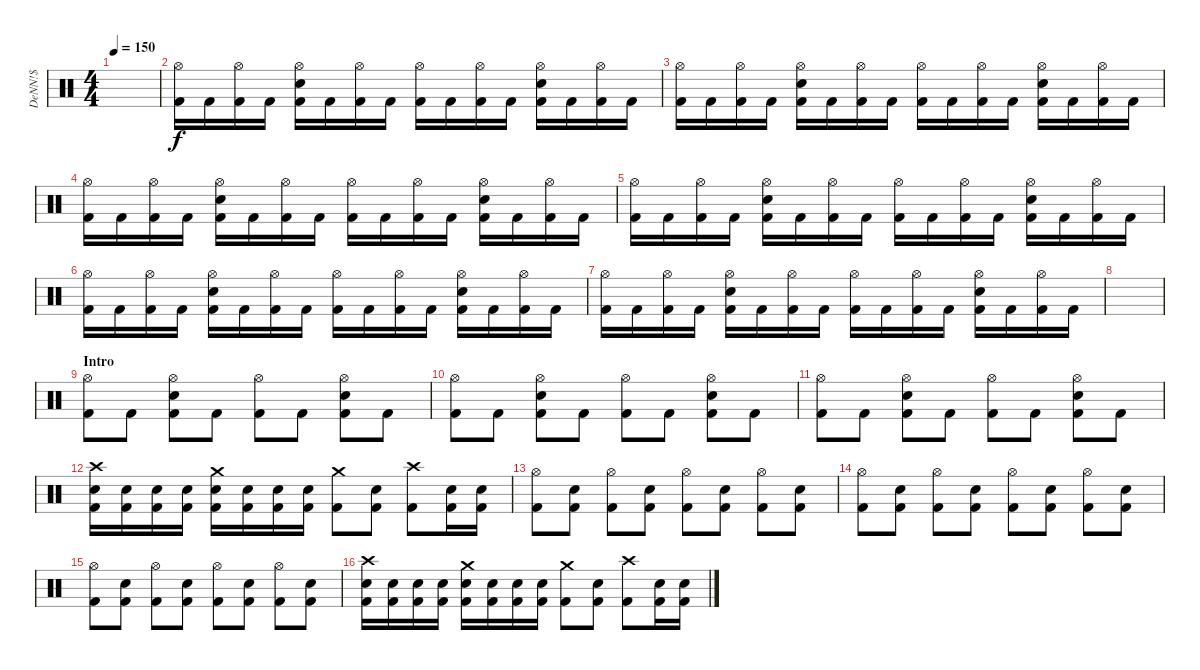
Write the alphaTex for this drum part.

\track ("DeNN!$" "DeNN!$") {instrument percussion}
\staff {score}
\articulation defaults
\ts (4 4)
\tempo 150
\clef neutral
\ks c
|
("Hi-Hat (open)" "Kick (hit) 2").16 "Kick (hit) 2".16 ("Hi-Hat (open)" "Kick (hit) 2").16 "Kick (hit) 2".16 ("Hi-Hat (open)" "Snare (hit) 2" "Kick (hit) 2").16 "Kick (hit) 2".16 ("Hi-Hat (open)" "Kick (hit) 2").16 "Kick (hit) 2".16 ("Hi-Hat (open)" "Kick (hit) 2").16 "Kick (hit) 2".16 ("Hi-Hat (open)" "Kick (hit) 2").16 "Kick (hit) 2".16 ("Hi-Hat (open)" "Snare (hit) 2" "Kick (hit) 2").16 "Kick (hit) 2".16 ("Hi-Hat (open)" "Kick (hit) 2").16 "Kick (hit) 2".16 |
("Hi-Hat (open)" "Kick (hit) 2").16 "Kick (hit) 2".16 ("Hi-Hat (open)" "Kick (hit) 2").16 "Kick (hit) 2".16 ("Hi-Hat (open)" "Snare (hit) 2" "Kick (hit) 2").16 "Kick (hit) 2".16 ("Hi-Hat (open)" "Kick (hit) 2").16 "Kick (hit) 2".16 ("Hi-Hat (open)" "Kick (hit) 2").16 "Kick (hit) 2".16 ("Hi-Hat (open)" "Kick (hit) 2").16 "Kick (hit) 2".16 ("Hi-Hat (open)" "Snare (hit) 2" "Kick (hit) 2").16 "Kick (hit) 2".16 ("Hi-Hat (open)" "Kick (hit) 2").16 "Kick (hit) 2".16 |
("Hi-Hat (open)" "Kick (hit) 2").16 "Kick (hit) 2".16 ("Hi-Hat (open)" "Kick (hit) 2").16 "Kick (hit) 2".16 ("Hi-Hat (open)" "Snare (hit) 2" "Kick (hit) 2").16 "Kick (hit) 2".16 ("Hi-Hat (open)" "Kick (hit) 2").16 "Kick (hit) 2".16 ("Hi-Hat (open)" "Kick (hit) 2").16 "Kick (hit) 2".16 ("Hi-Hat (open)" "Kick (hit) 2").16 "Kick (hit) 2".16 ("Hi-Hat (open)" "Snare (hit) 2" "Kick (hit) 2").16 "Kick (hit) 2".16 ("Hi-Hat (open)" "Kick (hit) 2").16 "Kick (hit) 2".16 |
("Hi-Hat (open)" "Kick (hit) 2").16 "Kick (hit) 2".16 ("Hi-Hat (open)" "Kick (hit) 2").16 "Kick (hit) 2".16 ("Hi-Hat (open)" "Snare (hit) 2" "Kick (hit) 2").16 "Kick (hit) 2".16 ("Hi-Hat (open)" "Kick (hit) 2").16 "Kick (hit) 2".16 ("Hi-Hat (open)" "Kick (hit) 2").16 "Kick (hit) 2".16 ("Hi-Hat (open)" "Kick (hit) 2").16 "Kick (hit) 2".16 ("Hi-Hat (open)" "Snare (hit) 2" "Kick (hit) 2").16 "Kick (hit) 2".16 ("Hi-Hat (open)" "Kick (hit) 2").16 "Kick (hit) 2".16 |
("Hi-Hat (open)" "Kick (hit) 2").16 "Kick (hit) 2".16 ("Hi-Hat (open)" "Kick (hit) 2").16 "Kick (hit) 2".16 ("Hi-Hat (open)" "Snare (hit) 2" "Kick (hit) 2").16 "Kick (hit) 2".16 ("Hi-Hat (open)" "Kick (hit) 2").16 "Kick (hit) 2".16 ("Hi-Hat (open)" "Kick (hit) 2").16 "Kick (hit) 2".16 ("Hi-Hat (open)" "Kick (hit) 2").16 "Kick (hit) 2".16 ("Hi-Hat (open)" "Snare (hit) 2" "Kick (hit) 2").16 "Kick (hit) 2".16 ("Hi-Hat (open)" "Kick (hit) 2").16 "Kick (hit) 2".16 |
("Hi-Hat (open)" "Kick (hit) 2").16 "Kick (hit) 2".16 ("Hi-Hat (open)" "Kick (hit) 2").16 "Kick (hit) 2".16 ("Hi-Hat (open)" "Snare (hit) 2" "Kick (hit) 2").16 "Kick (hit) 2".16 ("Hi-Hat (open)" "Kick (hit) 2").16 "Kick (hit) 2".16 ("Hi-Hat (open)" "Kick (hit) 2").16 "Kick (hit) 2".16 ("Hi-Hat (open)" "Kick (hit) 2").16 "Kick (hit) 2".16 ("Hi-Hat (open)" "Snare (hit) 2" "Kick (hit) 2").16 "Kick (hit) 2".16 ("Hi-Hat (open)" "Kick (hit) 2").16 "Kick (hit) 2".16 |
|
\section ("" "Intro")
("Hi-Hat (open)" "Kick (hit) 2").8 "Kick (hit) 2".8 ("Hi-Hat (open)" "Snare (hit) 2" "Kick (hit) 2").8 "Kick (hit) 2".8 ("Hi-Hat (open)" "Kick (hit) 2").8 "Kick (hit) 2".8 ("Hi-Hat (open)" "Snare (hit) 2" "Kick (hit) 2").8 "Kick (hit) 2".8 |
("Hi-Hat (open)" "Kick (hit) 2").8 "Kick (hit) 2".8 ("Hi-Hat (open)" "Snare (hit) 2" "Kick (hit) 2").8 "Kick (hit) 2".8 ("Hi-Hat (open)" "Kick (hit) 2").8 "Kick (hit) 2".8 ("Hi-Hat (open)" "Snare (hit) 2" "Kick (hit) 2").8 "Kick (hit) 2".8 |
("Hi-Hat (open)" "Kick (hit) 2").8 "Kick (hit) 2".8 ("Hi-Hat (open)" "Snare (hit) 2" "Kick (hit) 2").8 "Kick (hit) 2".8 ("Hi-Hat (open)" "Kick (hit) 2").8 "Kick (hit) 2".8 ("Hi-Hat (open)" "Snare (hit) 2" "Kick (hit) 2").8 "Kick (hit) 2".8 |
("Crash high (hit)" "Snare (hit) 2" "Kick (hit) 2").16 ("Snare (hit) 2" "Kick (hit) 2").16 ("Snare (hit) 2" "Kick (hit) 2").16 ("Snare (hit) 2" "Kick (hit) 2").16 ("Crash medium (hit)" "Snare (hit) 2" "Kick (hit) 2").16 ("Snare (hit) 2" "Kick (hit) 2").16 ("Snare (hit) 2" "Kick (hit) 2").16 ("Snare (hit) 2" "Kick (hit) 2").16 ("Crash medium (hit)" "Kick (hit) 2").8 ("Snare (hit) 2" "Kick (hit) 2").8 ("Crash high (hit)" "Kick (hit) 2").8 ("Snare (hit) 2" "Kick (hit) 2").16 ("Snare (hit) 2" "Kick (hit) 2").16 |
("Hi-Hat (open)" "Kick (hit) 2").8 ("Snare (hit) 2" "Kick (hit) 2").8 ("Hi-Hat (open)" "Kick (hit) 2").8 ("Snare (hit) 2" "Kick (hit) 2").8 ("Hi-Hat (open)" "Kick (hit) 2").8 ("Snare (hit) 2" "Kick (hit) 2").8 ("Hi-Hat (open)" "Kick (hit) 2").8 ("Snare (hit) 2" "Kick (hit) 2").8 |
("Hi-Hat (open)" "Kick (hit) 2").8 ("Snare (hit) 2" "Kick (hit) 2").8 ("Hi-Hat (open)" "Kick (hit) 2").8 ("Snare (hit) 2" "Kick (hit) 2").8 ("Hi-Hat (open)" "Kick (hit) 2").8 ("Snare (hit) 2" "Kick (hit) 2").8 ("Hi-Hat (open)" "Kick (hit) 2").8 ("Snare (hit) 2" "Kick (hit) 2").8 |
("Hi-Hat (open)" "Kick (hit) 2").8 ("Snare (hit) 2" "Kick (hit) 2").8 ("Hi-Hat (open)" "Kick (hit) 2").8 ("Snare (hit) 2" "Kick (hit) 2").8 ("Hi-Hat (open)" "Kick (hit) 2").8 ("Snare (hit) 2" "Kick (hit) 2").8 ("Hi-Hat (open)" "Kick (hit) 2").8 ("Snare (hit) 2" "Kick (hit) 2").8 |
("Crash high (hit)" "Snare (hit) 2" "Kick (hit) 2").16 ("Snare (hit) 2" "Kick (hit) 2").16 ("Snare (hit) 2" "Kick (hit) 2").16 ("Snare (hit) 2" "Kick (hit) 2").16 ("Crash medium (hit)" "Snare (hit) 2" "Kick (hit) 2").16 ("Snare (hit) 2" "Kick (hit) 2").16 ("Snare (hit) 2" "Kick (hit) 2").16 ("Snare (hit) 2" "Kick (hit) 2").16 ("Crash medium (hit)" "Kick (hit) 2").8 ("Snare (hit) 2" "Kick (hit) 2").8 ("Crash high (hit)" "Kick (hit) 2").8 ("Snare (hit) 2" "Kick (hit) 2").16 ("Snare (hit) 2" "Kick (hit) 2").16
